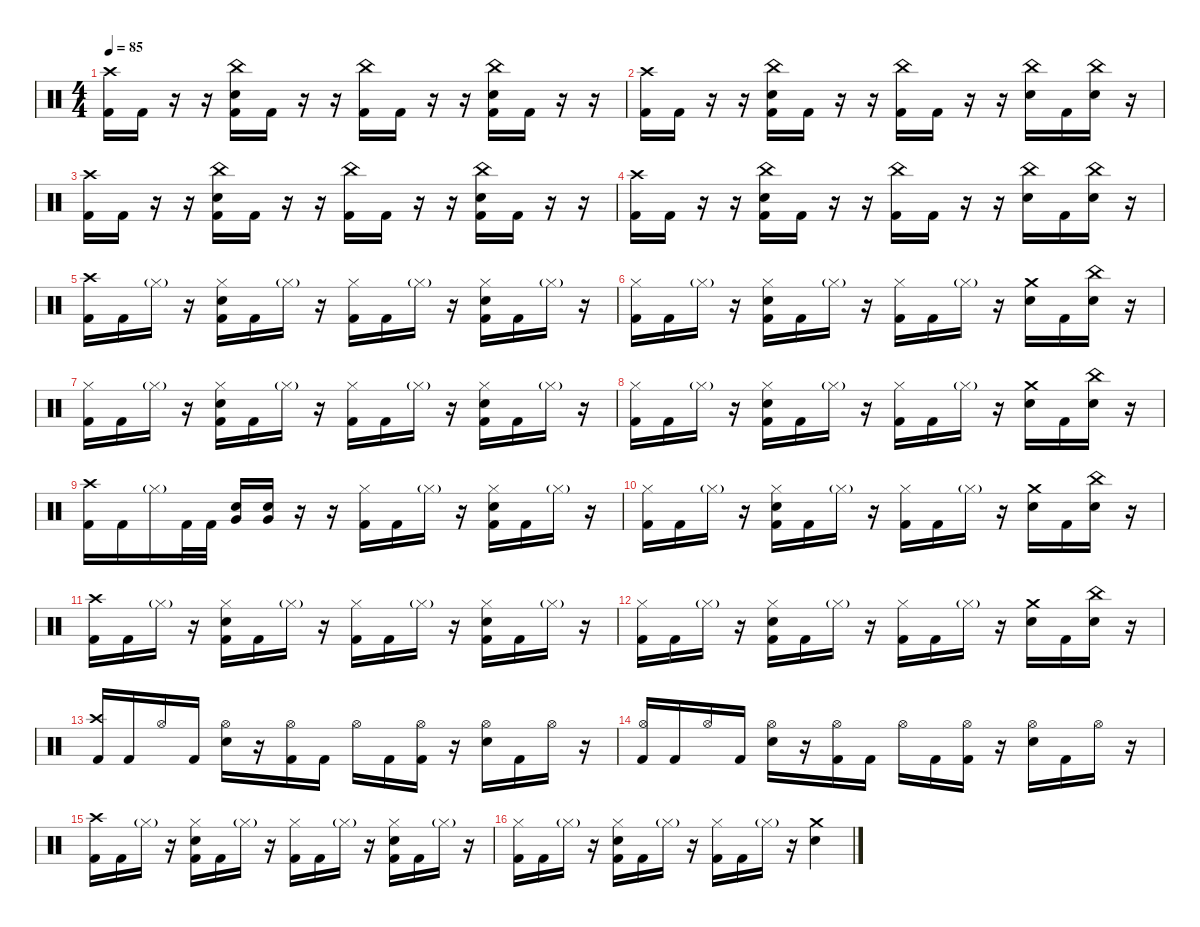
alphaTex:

\defaultSystemsLayout 4
\hideDynamics
\bracketExtendMode nobrackets
\singleTrackTrackNamePolicy hidden
\multiTrackTrackNamePolicy hidden
\firstSystemTrackNameMode fullname
\firstSystemTrackNameOrientation horizontal
\otherSystemsTrackNameOrientation horizontal
\track ("Drums" "drm.") {instrument percussion}
\staff {score}
\articulation defaults
\ts (4 4)
\tempo 85
\clef neutral
\ks c
("Crash high (hit)" "Kick (hit) 2").16{dy f beam Down} "Kick (hit) 2".16{beam Down} r.16{beam Down} r.16{beam Down} ("China (hit)" "Snare (hit) 2" "Kick (hit) 2").16{dy mf beam Down} "Kick (hit) 2".16{dy f beam Down} r.16{beam Down} r.16{beam Down} ("China (hit)" "Kick (hit) 2").16{dy mf beam Down} "Kick (hit) 2".16{dy f beam Down} r.16{beam Down} r.16{beam Down} ("China (hit)" "Snare (hit) 2" "Kick (hit) 2").16{dy mf beam Down} "Kick (hit) 2".16{dy f beam Down} r.16{beam Down} r.16{beam Down} |
("Crash high (hit)" "Kick (hit) 2").16{beam Down} "Kick (hit) 2".16{beam Down} r.16{beam Down} r.16{beam Down} ("China (hit)" "Snare (hit) 2" "Kick (hit) 2").16{dy mf beam Down} "Kick (hit) 2".16{dy f beam Down} r.16{beam Down} r.16{beam Down} ("China (hit)" "Kick (hit) 2").16{dy mf beam Down} "Kick (hit) 2".16{dy f beam Down} r.16{beam Down} r.16{beam Down} ("China (hit)" "Snare (hit) 2").16{dy mf beam Down} "Kick (hit) 2".16{dy f beam Down} ("China (hit)" "Snare (hit) 2").16{dy mf beam Down} r.16{beam Down} |
("Crash high (hit)" "Kick (hit) 2").16{dy f beam Down} "Kick (hit) 2".16{beam Down} r.16{beam Down} r.16{beam Down} ("China (hit)" "Snare (hit) 2" "Kick (hit) 2").16{dy mf beam Down} "Kick (hit) 2".16{dy f beam Down} r.16{beam Down} r.16{beam Down} ("China (hit)" "Kick (hit) 2").16{dy mf beam Down} "Kick (hit) 2".16{dy f beam Down} r.16{beam Down} r.16{beam Down} ("China (hit)" "Snare (hit) 2" "Kick (hit) 2").16{dy mf beam Down} "Kick (hit) 2".16{dy f beam Down} r.16{beam Down} r.16{beam Down} |
("Crash high (hit)" "Kick (hit) 2").16{beam Down} "Kick (hit) 2".16{beam Down} r.16{beam Down} r.16{beam Down} ("China (hit)" "Snare (hit) 2" "Kick (hit) 2").16{dy mf beam Down} "Kick (hit) 2".16{dy f beam Down} r.16{beam Down} r.16{beam Down} ("China (hit)" "Kick (hit) 2").16{dy mf beam Down} "Kick (hit) 2".16{dy f beam Down} r.16{beam Down} r.16{beam Down} ("China (hit)" "Snare (hit) 2").16{dy mf beam Down} "Kick (hit) 2".16{dy f beam Down} ("China (hit)" "Snare (hit) 2").16{dy mf beam Down} r.16{beam Down} |
("Crash high (hit)" "Kick (hit) 2").16{dy f beam Down} "Kick (hit) 2".16{beam Down} "Hi-Hat (closed)"{g}.16{dy mf beam Down} r.16{beam Down} ("Hi-Hat (closed)" "Snare (hit) 2" "Kick (hit) 2").16{dy f beam Down} "Kick (hit) 2".16{beam Down} "Hi-Hat (closed)"{g}.16{dy mf beam Down} r.16{beam Down} ("Hi-Hat (closed)" "Kick (hit) 2").16{dy f beam Down} "Kick (hit) 2".16{beam Down} "Hi-Hat (closed)"{g}.16{dy mf beam Down} r.16{beam Down} ("Hi-Hat (closed)" "Snare (hit) 2" "Kick (hit) 2").16{dy f beam Down} "Kick (hit) 2".16{beam Down} "Hi-Hat (closed)"{g}.16{dy mf beam Down} r.16{beam Down} |
("Hi-Hat (closed)" "Kick (hit) 2").16{dy f beam Down} "Kick (hit) 2".16{beam Down} "Hi-Hat (closed)"{g}.16{dy mf beam Down} r.16{beam Down} ("Hi-Hat (closed)" "Snare (hit) 2" "Kick (hit) 2").16{dy f beam Down} "Kick (hit) 2".16{beam Down} "Hi-Hat (closed)"{g}.16{dy mf beam Down} r.16{beam Down} ("Hi-Hat (closed)" "Kick (hit) 2").16{dy f beam Down} "Kick (hit) 2".16{beam Down} "Hi-Hat (closed)"{g}.16{dy mf beam Down} r.16{beam Down} ("Crash medium (hit)" "Snare (hit) 2").16{dy f beam Down} "Kick (hit) 2".16{beam Down} ("China (hit)" "Snare (hit) 2").16{beam Down} r.16{beam Down} |
("Hi-Hat (closed)" "Kick (hit) 2").16{beam Down} "Kick (hit) 2".16{beam Down} "Hi-Hat (closed)"{g}.16{dy mf beam Down} r.16{beam Down} ("Hi-Hat (closed)" "Snare (hit) 2" "Kick (hit) 2").16{dy f beam Down} "Kick (hit) 2".16{beam Down} "Hi-Hat (closed)"{g}.16{dy mf beam Down} r.16{beam Down} ("Hi-Hat (closed)" "Kick (hit) 2").16{dy f beam Down} "Kick (hit) 2".16{beam Down} "Hi-Hat (closed)"{g}.16{dy mf beam Down} r.16{beam Down} ("Hi-Hat (closed)" "Snare (hit) 2" "Kick (hit) 2").16{dy f beam Down} "Kick (hit) 2".16{beam Down} "Hi-Hat (closed)"{g}.16{dy mf beam Down} r.16{beam Down} |
("Hi-Hat (closed)" "Kick (hit) 2").16{dy f beam Down} "Kick (hit) 2".16{beam Down} "Hi-Hat (closed)"{g}.16{dy mf beam Down} r.16{beam Down} ("Hi-Hat (closed)" "Snare (hit) 2" "Kick (hit) 2").16{dy f beam Down} "Kick (hit) 2".16{beam Down} "Hi-Hat (closed)"{g}.16{dy mf beam Down} r.16{beam Down} ("Hi-Hat (closed)" "Kick (hit) 2").16{dy f beam Down} "Kick (hit) 2".16{beam Down} "Hi-Hat (closed)"{g}.16{dy mf beam Down} r.16{beam Down} ("Crash medium (hit)" "Snare (hit) 2").16{dy f beam Down} "Kick (hit) 2".16{beam Down} ("China (hit)" "Snare (hit) 2").16{beam Down} r.16{beam Down} |
("Crash high (hit)" "Kick (hit) 2").16{beam Down} "Kick (hit) 2".16{beam Down} "Hi-Hat (closed)"{g}.16{dy mf beam Down} "Kick (hit) 2".32{dy f beam Down} "Kick (hit) 2".32{beam Down} ("Snare (hit) 2" "Very Low Tom (hit)").16{beam Up} ("Snare (hit) 2" "Very Low Tom (hit)").16{beam Up} r.16{beam Up} r.16{beam Up} ("Hi-Hat (closed)" "Kick (hit) 2").16{beam Down} "Kick (hit) 2".16{beam Down} "Hi-Hat (closed)"{g}.16{dy mf beam Down} r.16{beam Down} ("Hi-Hat (closed)" "Snare (hit) 2" "Kick (hit) 2").16{dy f beam Down} "Kick (hit) 2".16{beam Down} "Hi-Hat (closed)"{g}.16{dy mf beam Down} r.16{beam Down} |
("Hi-Hat (closed)" "Kick (hit) 2").16{dy f beam Down} "Kick (hit) 2".16{beam Down} "Hi-Hat (closed)"{g}.16{dy mf beam Down} r.16{beam Down} ("Hi-Hat (closed)" "Snare (hit) 2" "Kick (hit) 2").16{dy f beam Down} "Kick (hit) 2".16{beam Down} "Hi-Hat (closed)"{g}.16{dy mf beam Down} r.16{beam Down} ("Hi-Hat (closed)" "Kick (hit) 2").16{dy f beam Down} "Kick (hit) 2".16{beam Down} "Hi-Hat (closed)"{g}.16{dy mf beam Down} r.16{beam Down} ("Crash medium (hit)" "Snare (hit) 2").16{dy f beam Down} "Kick (hit) 2".16{beam Down} ("China (hit)" "Snare (hit) 2").16{beam Down} r.16{beam Down} |
("Crash high (hit)" "Kick (hit) 2").16{beam Down} "Kick (hit) 2".16{beam Down} "Hi-Hat (closed)"{g}.16{dy mf beam Down} r.16{beam Down} ("Hi-Hat (closed)" "Snare (hit) 2" "Kick (hit) 2").16{dy f beam Down} "Kick (hit) 2".16{beam Down} "Hi-Hat (closed)"{g}.16{dy mf beam Down} r.16{beam Down} ("Hi-Hat (closed)" "Kick (hit) 2").16{dy f beam Down} "Kick (hit) 2".16{beam Down} "Hi-Hat (closed)"{g}.16{dy mf beam Down} r.16{beam Down} ("Hi-Hat (closed)" "Snare (hit) 2" "Kick (hit) 2").16{dy f beam Down} "Kick (hit) 2".16{beam Down} "Hi-Hat (closed)"{g}.16{dy mf beam Down} r.16{beam Down} |
("Hi-Hat (closed)" "Kick (hit) 2").16{dy f beam Down} "Kick (hit) 2".16{beam Down} "Hi-Hat (closed)"{g}.16{dy mf beam Down} r.16{beam Down} ("Hi-Hat (closed)" "Snare (hit) 2" "Kick (hit) 2").16{dy f beam Down} "Kick (hit) 2".16{beam Down} "Hi-Hat (closed)"{g}.16{dy mf beam Down} r.16{beam Down} ("Hi-Hat (closed)" "Kick (hit) 2").16{dy f beam Down} "Kick (hit) 2".16{beam Down} "Hi-Hat (closed)"{g}.16{dy mf beam Down} r.16{beam Down} ("Crash medium (hit)" "Snare (hit) 2").16{dy f beam Down} "Kick (hit) 2".16{beam Down} ("China (hit)" "Snare (hit) 2").16{beam Down} r.16{beam Down} |
("Crash high (hit)" "Kick (hit) 2").16{beam Up} "Kick (hit) 2".16{beam Up} "Hi-Hat (open)".16{dy mp beam Up} "Kick (hit) 2".16{dy f beam Up} ("Hi-Hat (open)" "Snare (hit) 2").16{dy mp beam Down} r.16{beam Down} ("Hi-Hat (open)" "Kick (hit) 2").16{beam Down} "Kick (hit) 2".16{dy f beam Down} "Hi-Hat (open)".16{dy mp beam Down} "Kick (hit) 2".16{dy f beam Down} ("Hi-Hat (open)" "Kick (hit) 2").16{dy mp beam Down} r.16{beam Down} ("Hi-Hat (open)" "Snare (hit) 2").16{beam Down} "Kick (hit) 2".16{dy f beam Down} "Hi-Hat (open)".16{dy mp beam Down} r.16{beam Down} |
("Hi-Hat (open)" "Kick (hit) 2").16{beam Up} "Kick (hit) 2".16{dy f beam Up} "Hi-Hat (open)".16{dy mp beam Up} "Kick (hit) 2".16{dy f beam Up} ("Hi-Hat (open)" "Snare (hit) 2").16{dy mp beam Down} r.16{beam Down} ("Hi-Hat (open)" "Kick (hit) 2").16{beam Down} "Kick (hit) 2".16{dy f beam Down} "Hi-Hat (open)".16{dy mp beam Down} "Kick (hit) 2".16{dy f beam Down} ("Hi-Hat (open)" "Kick (hit) 2").16{dy mp beam Down} r.16{beam Down} ("Hi-Hat (open)" "Snare (hit) 2").16{beam Down} "Kick (hit) 2".16{dy f beam Down} "Hi-Hat (open)".16{dy mp beam Down} r.16{beam Down} |
("Crash high (hit)" "Kick (hit) 2").16{dy f beam Down} "Kick (hit) 2".16{beam Down} "Hi-Hat (closed)"{g}.16{dy mf beam Down} r.16{beam Down} ("Hi-Hat (closed)" "Snare (hit) 2" "Kick (hit) 2").16{dy f beam Down} "Kick (hit) 2".16{beam Down} "Hi-Hat (closed)"{g}.16{dy mf beam Down} r.16{beam Down} ("Hi-Hat (closed)" "Kick (hit) 2").16{dy f beam Down} "Kick (hit) 2".16{beam Down} "Hi-Hat (closed)"{g}.16{dy mf beam Down} r.16{beam Down} ("Hi-Hat (closed)" "Snare (hit) 2" "Kick (hit) 2").16{dy f beam Down} "Kick (hit) 2".16{beam Down} "Hi-Hat (closed)"{g}.16{dy mf beam Down} r.16{beam Down} |
("Hi-Hat (closed)" "Kick (hit) 2").16{dy f beam Down} "Kick (hit) 2".16{beam Down} "Hi-Hat (closed)"{g}.16{dy mf beam Down} r.16{beam Down} ("Hi-Hat (closed)" "Snare (hit) 2" "Kick (hit) 2").16{dy f beam Down} "Kick (hit) 2".16{beam Down} "Hi-Hat (closed)"{g}.16{dy mf beam Down} r.16{beam Down} ("Hi-Hat (closed)" "Kick (hit) 2").16{dy f beam Down} "Kick (hit) 2".16{beam Down} "Hi-Hat (closed)"{g}.16{dy mf beam Down} r.16{beam Down} ("Crash medium (hit)" "Snare (hit) 2").4{dy f beam Down}
